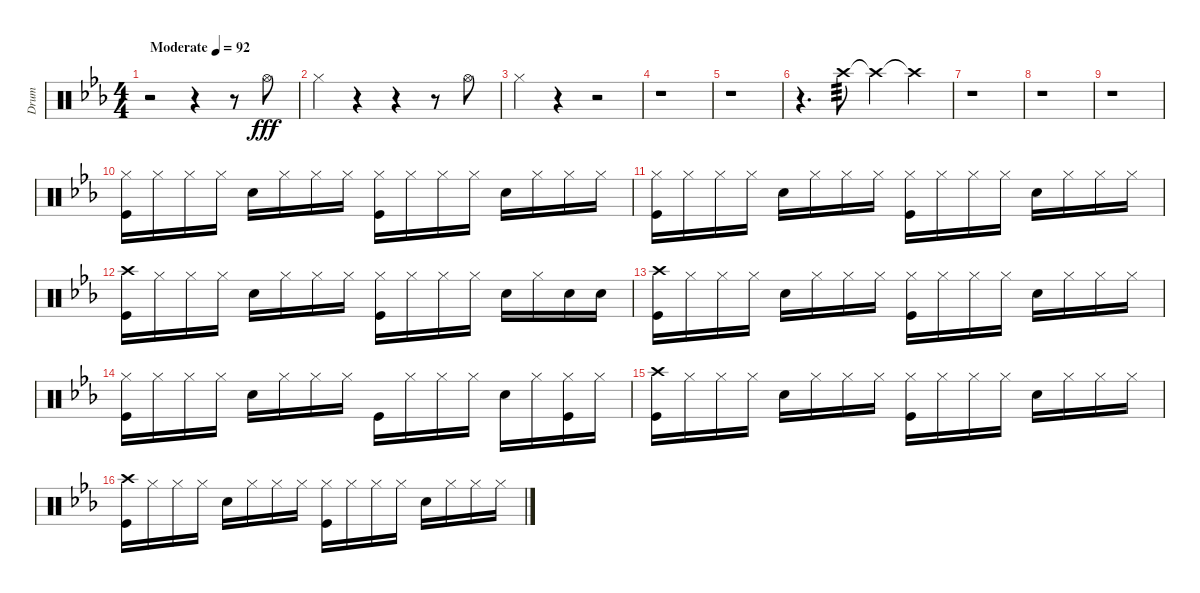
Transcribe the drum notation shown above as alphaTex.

\track ("Drum" "Drum") {instrument percussion}
\staff {score}
\articulation defaults
\ts (4 4)
\tempo (92 "Moderate")
\clef neutral
\ks eb
r.2{dy fff} r.4 r.8 "Hi-Hat (open)".8 |
"Hi-Hat (closed)".4 r.4 r.4 r.8 "Hi-Hat (open)".8 |
"Hi-Hat (closed)".4 r.4 r.2 |
r.1 |
r.1 |
r.4{d} "Crash high (hit)".8{tp 3} "Crash high (hit)"{t}.4 "Crash high (hit)"{t}.4 |
r.1 |
r.1 |
r.1 |
("Hi-Hat (closed)" "Kick (hit)").16 "Hi-Hat (closed)".16 "Hi-Hat (closed)".16 "Hi-Hat (closed)".16 "Snare (hit) 2".16 "Hi-Hat (closed)".16 "Hi-Hat (closed)".16 "Hi-Hat (closed)".16 ("Hi-Hat (closed)" "Kick (hit)").16 "Hi-Hat (closed)".16 "Hi-Hat (closed)".16 "Hi-Hat (closed)".16 "Snare (hit) 2".16 "Hi-Hat (closed)".16 "Hi-Hat (closed)".16 "Hi-Hat (closed)".16 |
("Hi-Hat (closed)" "Kick (hit)").16 "Hi-Hat (closed)".16 "Hi-Hat (closed)".16 "Hi-Hat (closed)".16 "Snare (hit) 2".16 "Hi-Hat (closed)".16 "Hi-Hat (closed)".16 "Hi-Hat (closed)".16 ("Hi-Hat (closed)" "Kick (hit)").16 "Hi-Hat (closed)".16 "Hi-Hat (closed)".16 "Hi-Hat (closed)".16 "Snare (hit) 2".16 "Hi-Hat (closed)".16 "Hi-Hat (closed)".16 "Hi-Hat (closed)".16 |
("Crash high (hit)" "Kick (hit)").16 "Hi-Hat (closed)".16 "Hi-Hat (closed)".16 "Hi-Hat (closed)".16 "Snare (hit) 2".16 "Hi-Hat (closed)".16 "Hi-Hat (closed)".16 "Hi-Hat (closed)".16 ("Hi-Hat (closed)" "Kick (hit)").16 "Hi-Hat (closed)".16 "Hi-Hat (closed)".16 "Hi-Hat (closed)".16 "Snare (hit) 2".16 "Hi-Hat (closed)".16 "Snare (hit) 2".16 "Snare (hit) 2".16 |
("Crash high (hit)" "Kick (hit)").16 "Hi-Hat (closed)".16 "Hi-Hat (closed)".16 "Hi-Hat (closed)".16 "Snare (hit) 2".16 "Hi-Hat (closed)".16 "Hi-Hat (closed)".16 "Hi-Hat (closed)".16 ("Hi-Hat (closed)" "Kick (hit)").16 "Hi-Hat (closed)".16 "Hi-Hat (closed)".16 "Hi-Hat (closed)".16 "Snare (hit) 2".16 "Hi-Hat (closed)".16 "Hi-Hat (closed)".16 "Hi-Hat (closed)".16 |
("Hi-Hat (closed)" "Kick (hit)").16 "Hi-Hat (closed)".16 "Hi-Hat (closed)".16 "Hi-Hat (closed)".16 "Snare (hit) 2".16 "Hi-Hat (closed)".16 "Hi-Hat (closed)".16 "Hi-Hat (closed)".16 "Kick (hit)".16 "Hi-Hat (closed)".16 "Hi-Hat (closed)".16 "Hi-Hat (closed)".16 "Snare (hit) 2".16 "Hi-Hat (closed)".16 ("Hi-Hat (closed)" "Kick (hit)").16 "Hi-Hat (closed)".16 |
("Crash high (hit)" "Kick (hit)").16 "Hi-Hat (closed)".16 "Hi-Hat (closed)".16 "Hi-Hat (closed)".16 "Snare (hit) 2".16 "Hi-Hat (closed)".16 "Hi-Hat (closed)".16 "Hi-Hat (closed)".16 ("Hi-Hat (closed)" "Kick (hit)").16 "Hi-Hat (closed)".16 "Hi-Hat (closed)".16 "Hi-Hat (closed)".16 "Snare (hit) 2".16 "Hi-Hat (closed)".16 "Hi-Hat (closed)".16 "Hi-Hat (closed)".16 |
("Crash high (hit)" "Kick (hit)").16 "Hi-Hat (closed)".16 "Hi-Hat (closed)".16 "Hi-Hat (closed)".16 "Snare (hit) 2".16 "Hi-Hat (closed)".16 "Hi-Hat (closed)".16 "Hi-Hat (closed)".16 ("Hi-Hat (closed)" "Kick (hit)").16 "Hi-Hat (closed)".16 "Hi-Hat (closed)".16 "Hi-Hat (closed)".16 "Snare (hit) 2".16 "Hi-Hat (closed)".16 "Hi-Hat (closed)".16 "Hi-Hat (closed)".16
